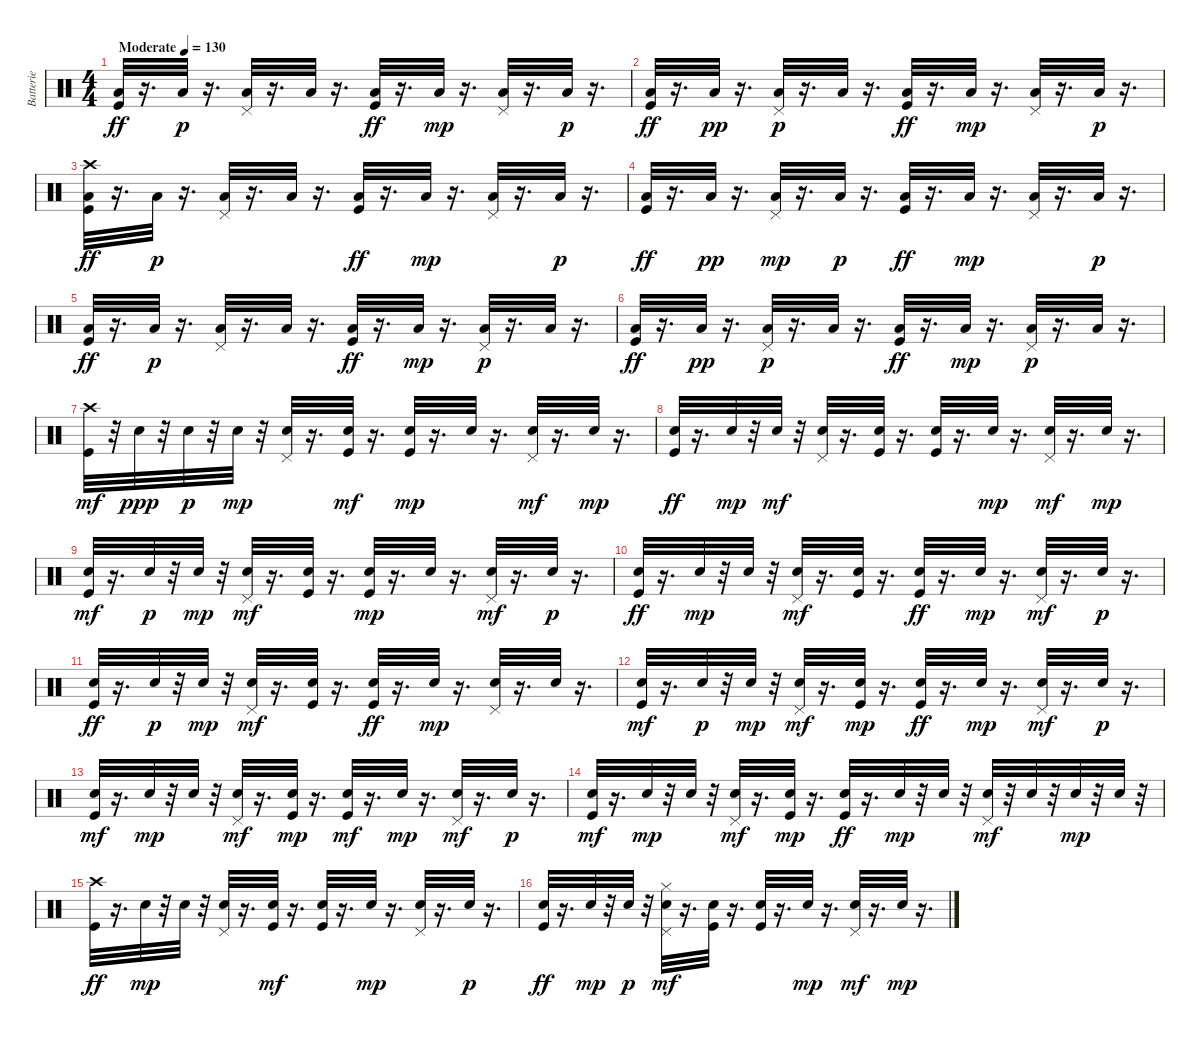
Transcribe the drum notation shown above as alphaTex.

\track ("Batterie" "Batterie") {instrument percussion}
\staff {score}
\articulation defaults
\ts (4 4)
\tempo (130 "Moderate")
\clef neutral
\ks c
("Low Tom (hit)" "Kick (hit)").32{dy ff} r.16{d} "Low Tom (hit)".32{dy p} r.16{d} ("Low Tom (hit)" "Pedal Hi-Hat (hit)").32 r.16{d} "Low Tom (hit)".32 r.16{d} ("Kick (hit)" "Low Tom (hit)").32{dy ff} r.16{d} "Low Tom (hit)".32{dy mp} r.16{d} ("Low Tom (hit)" "Pedal Hi-Hat (hit)").32 r.16{d} "Low Tom (hit)".32{dy p} r.16{d} |
("Low Tom (hit)" "Kick (hit)").32{dy ff} r.16{d} "Low Tom (hit)".32{dy pp} r.16{d} ("Pedal Hi-Hat (hit)" "Low Tom (hit)").32{dy p} r.16{d} "Low Tom (hit)".32 r.16{d} ("Low Tom (hit)" "Kick (hit)").32{dy ff} r.16{d} "Low Tom (hit)".32{dy mp} r.16{d} ("Low Tom (hit)" "Pedal Hi-Hat (hit)").32 r.16{d} "Low Tom (hit)".32{dy p} r.16{d} |
("Crash high (hit)" "Kick (hit)" "Low Tom (hit)").32{dy ff} r.16{d} "Low Tom (hit)".32{dy p} r.16{d} ("Low Tom (hit)" "Pedal Hi-Hat (hit)").32 r.16{d} "Low Tom (hit)".32 r.16{d} ("Low Tom (hit)" "Kick (hit)").32{dy ff} r.16{d} "Low Tom (hit)".32{dy mp} r.16{d} ("Low Tom (hit)" "Pedal Hi-Hat (hit)").32 r.16{d} "Low Tom (hit)".32{dy p} r.16{d} |
("Kick (hit)" "Low Tom (hit)").32{dy ff} r.16{d} "Low Tom (hit)".32{dy pp} r.16{d} ("Low Tom (hit)" "Pedal Hi-Hat (hit)").32{dy mp} r.16{d} "Low Tom (hit)".32{dy p} r.16{d} ("Low Tom (hit)" "Kick (hit)").32{dy ff} r.16{d} "Low Tom (hit)".32{dy mp} r.16{d} ("Low Tom (hit)" "Pedal Hi-Hat (hit)").32 r.16{d} "Low Tom (hit)".32{dy p} r.16{d} |
("Kick (hit)" "Low Tom (hit)").32{dy ff} r.16{d} "Low Tom (hit)".32{dy p} r.16{d} ("Pedal Hi-Hat (hit)" "Low Tom (hit)").32 r.16{d} "Low Tom (hit)".32 r.16{d} ("Kick (hit)" "Low Tom (hit)").32{dy ff} r.16{d} "Low Tom (hit)".32{dy mp} r.16{d} ("Pedal Hi-Hat (hit)" "Low Tom (hit)").32{dy p} r.16{d} "Low Tom (hit)".32 r.16{d} |
("Low Tom (hit)" "Kick (hit)").32{dy ff} r.16{d} "Low Tom (hit)".32{dy pp} r.16{d} ("Pedal Hi-Hat (hit)" "Low Tom (hit)").32{dy p} r.16{d} "Low Tom (hit)".32 r.16{d} ("Low Tom (hit)" "Kick (hit)").32{dy ff} r.16{d} "Low Tom (hit)".32{dy mp} r.16{d} ("Pedal Hi-Hat (hit)" "Low Tom (hit)").32{dy p} r.16{d} "Low Tom (hit)".32 r.16{d} |
("Kick (hit)" "Crash high (hit)").32{dy mf} r.32 "Electric Snare (hit)".32{dy ppp} r.32 "Electric Snare (hit)".32{dy p} r.32 "Electric Snare (hit)".32{dy mp} r.32 ("Pedal Hi-Hat (hit)" "Electric Snare (hit)").32 r.16{d} ("Kick (hit)" "Electric Snare (hit)").32{dy mf} r.16{d} ("Kick (hit)" "Electric Snare (hit)").32{dy mp} r.16{d} "Electric Snare (hit)".32 r.16{d} ("Electric Snare (hit)" "Pedal Hi-Hat (hit)").32{dy mf} r.16{d} "Electric Snare (hit)".32{dy mp} r.16{d} |
("Electric Snare (hit)" "Kick (hit)").32{dy ff} r.16{d} "Electric Snare (hit)".32{dy mp} r.32 "Electric Snare (hit)".32{dy mf} r.32 ("Pedal Hi-Hat (hit)" "Electric Snare (hit)").32 r.16{d} ("Kick (hit)" "Electric Snare (hit)").32 r.16{d} ("Kick (hit)" "Electric Snare (hit)").32 r.16{d} "Electric Snare (hit)".32{dy mp} r.16{d} ("Pedal Hi-Hat (hit)" "Electric Snare (hit)").32{dy mf} r.16{d} "Electric Snare (hit)".32{dy mp} r.16{d} |
("Kick (hit)" "Electric Snare (hit)").32{dy mf} r.16{d} "Electric Snare (hit)".32{dy p} r.32 "Electric Snare (hit)".32{dy mp} r.32 ("Pedal Hi-Hat (hit)" "Electric Snare (hit)").32{dy mf} r.16{d} ("Kick (hit)" "Electric Snare (hit)").32 r.16{d} ("Kick (hit)" "Electric Snare (hit)").32{dy mp} r.16{d} "Electric Snare (hit)".32 r.16{d} ("Pedal Hi-Hat (hit)" "Electric Snare (hit)").32{dy mf} r.16{d} "Electric Snare (hit)".32{dy p} r.16{d} |
("Electric Snare (hit)" "Kick (hit)").32{dy ff} r.16{d} "Electric Snare (hit)".32{dy mp} r.32 "Electric Snare (hit)".32 r.32 ("Pedal Hi-Hat (hit)" "Electric Snare (hit)").32{dy mf} r.16{d} ("Kick (hit)" "Electric Snare (hit)").32 r.16{d} ("Electric Snare (hit)" "Kick (hit)").32{dy ff} r.16{d} "Electric Snare (hit)".32{dy mp} r.16{d} ("Pedal Hi-Hat (hit)" "Electric Snare (hit)").32{dy mf} r.16{d} "Electric Snare (hit)".32{dy p} r.16{d} |
("Electric Snare (hit)" "Kick (hit)").32{dy ff} r.16{d} "Electric Snare (hit)".32{dy p} r.32 "Electric Snare (hit)".32{dy mp} r.32 ("Pedal Hi-Hat (hit)" "Electric Snare (hit)").32{dy mf} r.16{d} ("Kick (hit)" "Electric Snare (hit)").32 r.16{d} ("Electric Snare (hit)" "Kick (hit)").32{dy ff} r.16{d} "Electric Snare (hit)".32{dy mp} r.16{d} ("Electric Snare (hit)" "Pedal Hi-Hat (hit)").32 r.16{d} "Electric Snare (hit)".32 r.16{d} |
("Kick (hit)" "Electric Snare (hit)").32{dy mf} r.16{d} "Electric Snare (hit)".32{dy p} r.32 "Electric Snare (hit)".32{dy mp} r.32 ("Pedal Hi-Hat (hit)" "Electric Snare (hit)").32{dy mf} r.16{d} ("Kick (hit)" "Electric Snare (hit)").32{dy mp} r.16{d} ("Electric Snare (hit)" "Kick (hit)").32{dy ff} r.16{d} "Electric Snare (hit)".32{dy mp} r.16{d} ("Electric Snare (hit)" "Pedal Hi-Hat (hit)").32{dy mf} r.16{d} "Electric Snare (hit)".32{dy p} r.16{d} |
("Kick (hit)" "Electric Snare (hit)").32{dy mf} r.16{d} "Electric Snare (hit)".32{dy mp} r.32 "Electric Snare (hit)".32 r.32 ("Electric Snare (hit)" "Pedal Hi-Hat (hit)").32{dy mf} r.16{d} ("Electric Snare (hit)" "Kick (hit)").32{dy mp} r.16{d} ("Kick (hit)" "Electric Snare (hit)").32{dy mf} r.16{d} "Electric Snare (hit)".32{dy mp} r.16{d} ("Pedal Hi-Hat (hit)" "Electric Snare (hit)").32{dy mf} r.16{d} "Electric Snare (hit)".32{dy p} r.16{d} |
("Kick (hit)" "Electric Snare (hit)").32{dy mf} r.16{d} "Electric Snare (hit)".32{dy mp} r.32 "Electric Snare (hit)".32 r.32 ("Pedal Hi-Hat (hit)" "Electric Snare (hit)").32{dy mf} r.16{d} ("Electric Snare (hit)" "Kick (hit)").32{dy mp} r.16{d} ("Electric Snare (hit)" "Kick (hit)").32{dy ff} r.16{d} "Electric Snare (hit)".32{dy mp} r.32 "Electric Snare (hit)".32 r.32 ("Pedal Hi-Hat (hit)" "Electric Snare (hit)").32{dy mf} r.32 "Electric Snare (hit)".32 r.32 "Electric Snare (hit)".32{dy mp} r.32 "Electric Snare (hit)".32 r.32 |
("Crash high (hit)" "Kick (hit)").32{dy ff} r.16{d} "Electric Snare (hit)".32{dy mp} r.32 "Electric Snare (hit)".32 r.32 ("Pedal Hi-Hat (hit)" "Electric Snare (hit)").32 r.16{d} ("Kick (hit)" "Electric Snare (hit)").32{dy mf} r.16{d} ("Kick (hit)" "Electric Snare (hit)").32 r.16{d} "Electric Snare (hit)".32{dy mp} r.16{d} ("Electric Snare (hit)" "Pedal Hi-Hat (hit)").32 r.16{d} "Electric Snare (hit)".32{dy p} r.16{d} |
("Kick (hit)" "Electric Snare (hit)").32{dy ff} r.16{d} "Electric Snare (hit)".32{dy mp} r.32 "Electric Snare (hit)".32{dy p} r.32 ("Hi-Hat (closed)" "Pedal Hi-Hat (hit)" "Electric Snare (hit)").32{dy mf} r.16{d} ("Kick (hit)" "Electric Snare (hit)").32 r.16{d} ("Kick (hit)" "Electric Snare (hit)").32 r.16{d} "Electric Snare (hit)".32{dy mp} r.16{d} ("Electric Snare (hit)" "Pedal Hi-Hat (hit)").32{dy mf} r.16{d} "Electric Snare (hit)".32{dy mp} r.16{d}
